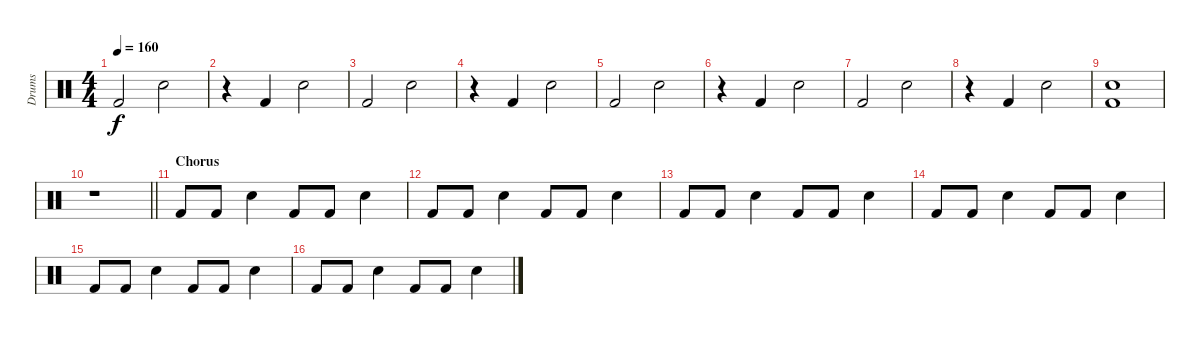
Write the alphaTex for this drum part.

\track ("Drums" "Drums") {instrument percussion}
\staff {score}
\articulation defaults
\ts (4 4)
\tempo 160
\clef neutral
\ks c "Kick (hit) 2".2{dy f} "Electric Snare (hit)".2
|
r.4 "Kick (hit) 2".4 "Electric Snare (hit)".2 |
"Kick (hit) 2".2 "Electric Snare (hit)".2 |
r.4 "Kick (hit) 2".4 "Electric Snare (hit)".2 |
"Kick (hit) 2".2 "Electric Snare (hit)".2 |
r.4 "Kick (hit) 2".4 "Electric Snare (hit)".2 |
"Kick (hit) 2".2 "Electric Snare (hit)".2 |
r.4 "Kick (hit) 2".4 "Electric Snare (hit)".2 |
("Kick (hit) 2" "Electric Snare (hit)").1 |
\barLineRight lightlight
r.1 |
\section ("" "Chorus")
"Kick (hit) 2".8 "Kick (hit) 2".8 "Electric Snare (hit)".4 "Kick (hit) 2".8 "Kick (hit) 2".8 "Electric Snare (hit)".4 |
"Kick (hit) 2".8 "Kick (hit) 2".8 "Electric Snare (hit)".4 "Kick (hit) 2".8 "Kick (hit) 2".8 "Electric Snare (hit)".4 |
"Kick (hit) 2".8 "Kick (hit) 2".8 "Electric Snare (hit)".4 "Kick (hit) 2".8 "Kick (hit) 2".8 "Electric Snare (hit)".4 |
"Kick (hit) 2".8 "Kick (hit) 2".8 "Electric Snare (hit)".4 "Kick (hit) 2".8 "Kick (hit) 2".8 "Electric Snare (hit)".4 |
"Kick (hit) 2".8 "Kick (hit) 2".8 "Electric Snare (hit)".4 "Kick (hit) 2".8 "Kick (hit) 2".8 "Electric Snare (hit)".4 |
"Kick (hit) 2".8 "Kick (hit) 2".8 "Electric Snare (hit)".4 "Kick (hit) 2".8 "Kick (hit) 2".8 "Electric Snare (hit)".4
